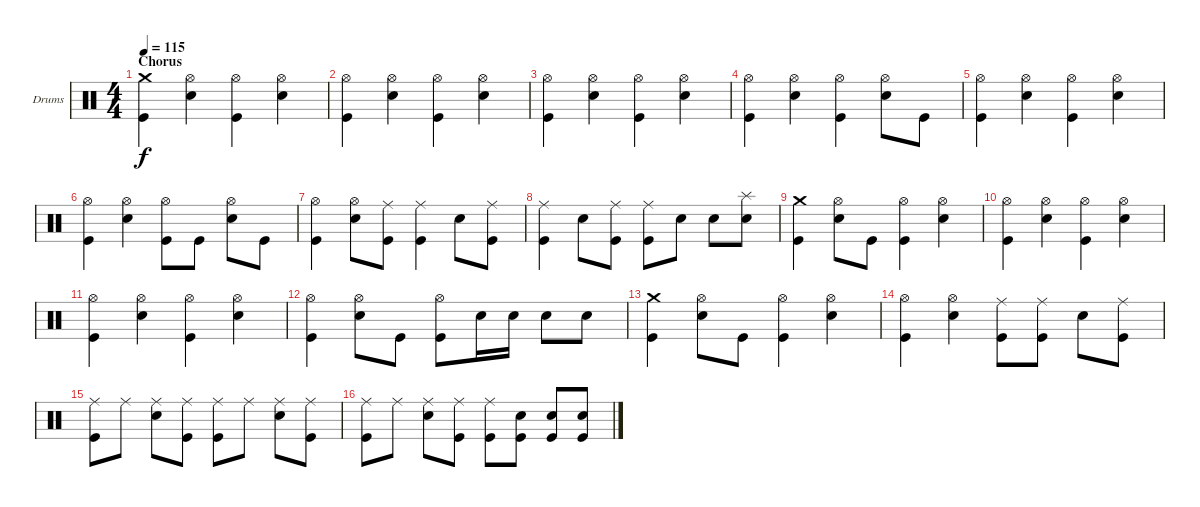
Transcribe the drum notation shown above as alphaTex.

\bracketExtendMode groupsimilarinstruments
\firstSystemTrackNameOrientation horizontal
\otherSystemsTrackNameOrientation horizontal
\track ("Drumkit" "Drums") {instrument percussion}
\staff {score}
\articulation defaults
\ts (4 4)
\section ("" "Chorus")
\tempo 115
\clef neutral
\ks c
("Crash medium (hit)" "Kick (hit)").4{dy f} ("Hi-Hat (open)" "Snare (hit) 2").4 ("Hi-Hat (open)" "Kick (hit)").4 ("Hi-Hat (open)" "Snare (hit) 2").4 |
("Hi-Hat (open)" "Kick (hit)").4 ("Hi-Hat (open)" "Snare (hit) 2").4 ("Hi-Hat (open)" "Kick (hit)").4 ("Hi-Hat (open)" "Snare (hit) 2").4 |
("Hi-Hat (open)" "Kick (hit)").4 ("Hi-Hat (open)" "Snare (hit) 2").4 ("Hi-Hat (open)" "Kick (hit)").4 ("Hi-Hat (open)" "Snare (hit) 2").4 |
("Hi-Hat (open)" "Kick (hit)").4 ("Hi-Hat (open)" "Snare (hit) 2").4 ("Hi-Hat (open)" "Kick (hit)").4 ("Hi-Hat (open)" "Snare (hit) 2").8 "Kick (hit)".8 |
("Hi-Hat (open)" "Kick (hit)").4 ("Hi-Hat (open)" "Snare (hit) 2").4 ("Hi-Hat (open)" "Kick (hit)").4 ("Hi-Hat (open)" "Snare (hit) 2").4 |
("Hi-Hat (open)" "Kick (hit)").4 ("Hi-Hat (open)" "Snare (hit) 2").4 ("Hi-Hat (open)" "Kick (hit)").8 "Kick (hit)".8 ("Hi-Hat (open)" "Snare (hit) 2").8 "Kick (hit)".8 |
("Hi-Hat (open)" "Kick (hit)").4 ("Hi-Hat (open)" "Snare (hit) 2").8 ("Ride (middle)" "Kick (hit)").8 ("Ride (middle)" "Kick (hit)").4 "Snare (hit) 2".8 ("Ride (middle)" "Kick (hit)").8 |
("Ride (middle)" "Kick (hit)").4 "Snare (hit) 2".8 ("Ride (middle)" "Kick (hit)").8 ("Ride (middle)" "Kick (hit)").8 "Snare (hit) 2".8 "Snare (hit) 2".8 ("Splash (hit)" "Snare (hit) 2").8 |
("Crash medium (hit)" "Kick (hit)").4 ("Hi-Hat (open)" "Snare (hit) 2").8 "Kick (hit)".8 ("Hi-Hat (open)" "Kick (hit)").4 ("Hi-Hat (open)" "Snare (hit) 2").4 |
("Hi-Hat (open)" "Kick (hit)").4 ("Hi-Hat (open)" "Snare (hit) 2").4 ("Hi-Hat (open)" "Kick (hit)").4 ("Hi-Hat (open)" "Snare (hit) 2").4 |
("Hi-Hat (open)" "Kick (hit)").4 ("Hi-Hat (open)" "Snare (hit) 2").4 ("Hi-Hat (open)" "Kick (hit)").4 ("Hi-Hat (open)" "Snare (hit) 2").4 |
("Hi-Hat (open)" "Kick (hit)").4 ("Hi-Hat (open)" "Snare (hit) 2").8 "Kick (hit)".8 ("Hi-Hat (open)" "Kick (hit)").8 "Snare (hit) 2".16 "Snare (hit) 2".16 "Snare (hit) 2".8 "Snare (hit) 2".8 |
("Crash medium (hit)" "Kick (hit)").4 ("Hi-Hat (open)" "Snare (hit) 2").8 "Kick (hit)".8 ("Hi-Hat (open)" "Kick (hit)").4 ("Hi-Hat (open)" "Snare (hit) 2").4 |
("Hi-Hat (open)" "Kick (hit)").4 ("Hi-Hat (open)" "Snare (hit) 2").4 ("Ride (middle)" "Kick (hit)").8 ("Ride (middle)" "Kick (hit)").8 "Snare (hit) 2".8 ("Ride (middle)" "Kick (hit)").8 |
("Ride (middle)" "Kick (hit)").8 "Ride (middle)".8 ("Ride (middle)" "Snare (hit) 2").8 ("Ride (middle)" "Kick (hit)").8 ("Ride (middle)" "Kick (hit)").8 "Ride (middle)".8 ("Ride (middle)" "Snare (hit) 2").8 ("Ride (middle)" "Kick (hit)").8 |
("Ride (middle)" "Kick (hit)").8 "Ride (middle)".8 ("Ride (middle)" "Snare (hit) 2").8 ("Ride (middle)" "Kick (hit)").8 ("Ride (middle)" "Kick (hit)").8 ("Snare (hit) 2" "Kick (hit)").8 ("Snare (hit) 2" "Kick (hit)").8 ("Snare (hit) 2" "Kick (hit)").8
